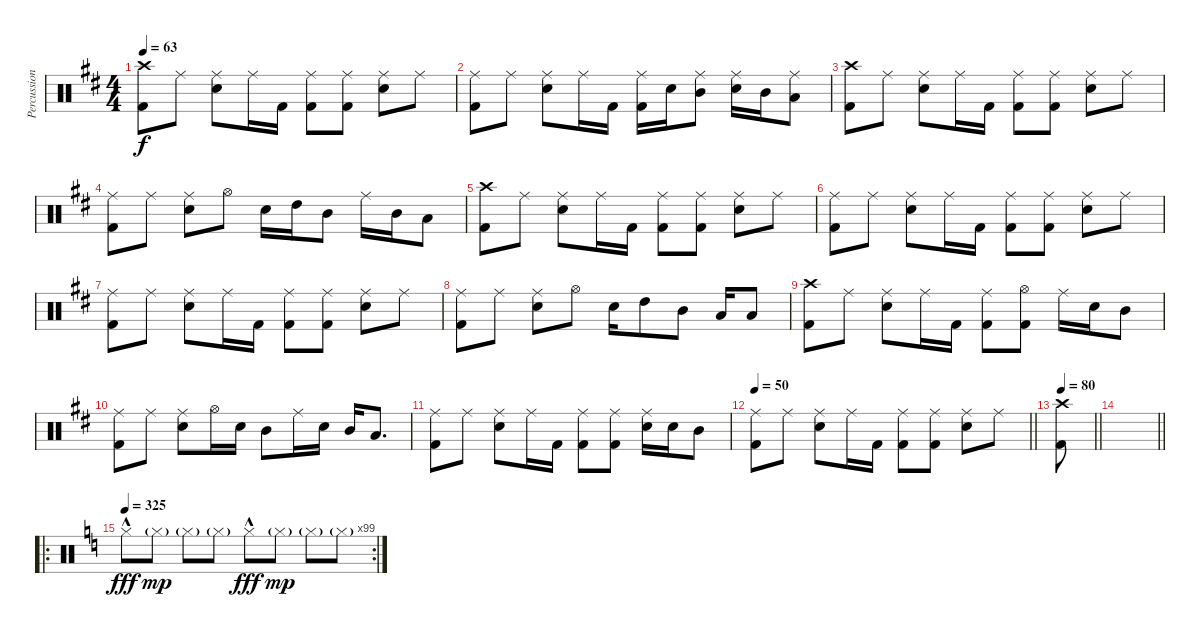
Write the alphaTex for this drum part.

\track ("Percussion" "Percussion") {instrument percussion}
\staff {score}
\articulation defaults
\ts (4 4)
\tempo 63
\clef neutral
\ks d
("Crash high (hit)" "Kick (hit) 2").8{dy f} "Ride (middle)".8 ("Ride (middle)" "Snare (hit) 2").8 "Ride (middle)".16 "Kick (hit) 2".16 ("Ride (middle)" "Kick (hit) 2").8 ("Ride (middle)" "Kick (hit) 2").8 ("Ride (middle)" "Snare (hit) 2").8 "Ride (middle)".8 |
("Ride (middle)" "Kick (hit) 2").8 "Ride (middle)".8 ("Ride (middle)" "Snare (hit) 2").8 "Ride (middle)".16 "Kick (hit) 2".16 ("Ride (middle)" "Kick (hit) 2").16 "Snare (hit) 2".16 ("Ride (middle)" "Mid Tom (hit)").8 ("Ride (middle)" "Snare (hit) 2").16 "Mid Tom (hit)".16 ("Ride (middle)" "Low Tom (hit)").8 |
("Crash high (hit)" "Kick (hit) 2").8 "Ride (middle)".8 ("Ride (middle)" "Snare (hit) 2").8 "Ride (middle)".16 "Kick (hit) 2".16 ("Ride (middle)" "Kick (hit) 2").8 ("Ride (middle)" "Kick (hit) 2").8 ("Ride (middle)" "Snare (hit) 2").8 "Ride (middle)".8 |
("Ride (middle)" "Kick (hit) 2").8 "Ride (middle)".8 ("Ride (middle)" "Snare (hit) 2").8 "Hi-Hat (open)".8 "Snare (hit) 2".16 "High Tom (hit)".16 "Mid Tom (hit)".8 "Ride (middle)".16 "Mid Tom (hit)".16 "Low Tom (hit)".8 |
("Crash high (hit)" "Kick (hit) 2").8 "Ride (middle)".8 ("Ride (middle)" "Snare (hit) 2").8 "Ride (middle)".16 "Kick (hit) 2".16 ("Ride (middle)" "Kick (hit) 2").8 ("Ride (middle)" "Kick (hit) 2").8 ("Ride (middle)" "Snare (hit) 2").8 "Ride (middle)".8 |
("Ride (middle)" "Kick (hit) 2").8 "Ride (middle)".8 ("Ride (middle)" "Snare (hit) 2").8 "Ride (middle)".16 "Kick (hit) 2".16 ("Ride (middle)" "Kick (hit) 2").8 ("Ride (middle)" "Kick (hit) 2").8 ("Ride (middle)" "Snare (hit) 2").8 "Ride (middle)".8 |
("Ride (middle)" "Kick (hit) 2").8 "Ride (middle)".8 ("Ride (middle)" "Snare (hit) 2").8 "Ride (middle)".16 "Kick (hit) 2".16 ("Ride (middle)" "Kick (hit) 2").8 ("Ride (middle)" "Kick (hit) 2").8 ("Ride (middle)" "Snare (hit) 2").8 "Ride (middle)".8 |
("Ride (middle)" "Kick (hit) 2").8 "Ride (middle)".8 ("Ride (middle)" "Snare (hit) 2").8 "Hi-Hat (open)".8 "Snare (hit) 2".16 "High Tom (hit)".8 "Mid Tom (hit)".8 "Low Tom (hit)".16 "Low Tom (hit)".8 |
("Crash high (hit)" "Kick (hit) 2").8{volume 9} "Ride (middle)".8 ("Ride (middle)" "Snare (hit) 2").8 "Ride (middle)".16 "Kick (hit) 2".16 ("Ride (middle)" "Kick (hit) 2").8 ("Hi-Hat (open)" "Kick (hit) 2").8 "Ride (middle)".16 "Snare (hit) 2".16 "Mid Tom (hit)".8 |
("Ride (middle)" "Kick (hit) 2").8 "Ride (middle)".8 ("Ride (middle)" "Snare (hit) 2").8 "Hi-Hat (open)".16 "Snare (hit) 2".16 "Mid Tom (hit)".8 "Ride (middle)".16 "Snare (hit) 2".16 "Mid Tom (hit)".16 "Low Tom (hit)".8{d} |
("Ride (middle)" "Kick (hit) 2").8 "Ride (middle)".8 ("Ride (middle)" "Snare (hit) 2").8 "Ride (middle)".16 "Kick (hit) 2".16 ("Ride (middle)" "Kick (hit) 2").8 ("Ride (middle)" "Kick (hit) 2").8 ("Ride (middle)" "Snare (hit) 2").16 "Snare (hit) 2".16 "Mid Tom (hit)".8 |
\tempo 50
\barLineRight lightlight
("Ride (middle)" "Kick (hit) 2").8 "Ride (middle)".8 ("Ride (middle)" "Snare (hit) 2").8 "Ride (middle)".16 "Kick (hit) 2".16 ("Ride (middle)" "Kick (hit) 2").8 ("Ride (middle)" "Kick (hit) 2").8 ("Ride (middle)" "Snare (hit) 2").8 "Ride (middle)".8 |
\tempo 80
\barLineRight lightlight
("Crash high (hit)" "Kick (hit) 2").8 |
\barLineRight lightlight
|
\ro
\rc 99
\tempo 325
\ks c "Hi-Hat (closed)"{hac}.8{dy fff} "Hi-Hat (closed)"{g}.8{dy mp} "Hi-Hat (closed)"{g}.8 "Hi-Hat (closed)"{g}.8 "Hi-Hat (closed)"{hac}.8{dy fff} "Hi-Hat (closed)"{g}.8{dy mp} "Hi-Hat (closed)"{g}.8 "Hi-Hat (closed)"{g}.8
